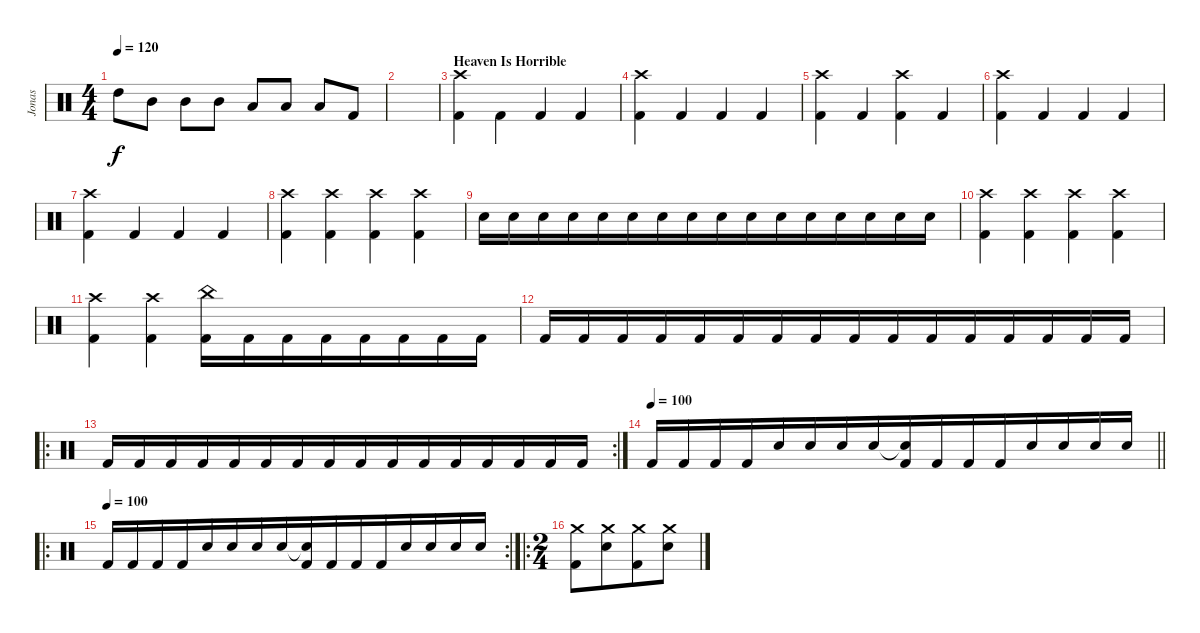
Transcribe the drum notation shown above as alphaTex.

\track ("Jonas" "Jonas") {instrument percussion}
\staff {score}
\articulation defaults
\ts (4 4)
\tempo 120
\clef neutral
\ks c "High Tom (hit)".8{dy f} "Mid Tom (hit)".8 "Mid Tom (hit)".8 "Mid Tom (hit)".8 "Low Tom (hit)".8 "Low Tom (hit)".8 "Low Tom (hit)".8 "Kick (hit) 2".8
|
|
\section ("" "Heaven Is Horrible")
("Crash high (hit)" "Kick (hit) 2").4{beam merge} "Kick (hit) 2".4 "Kick (hit) 2".4 "Kick (hit) 2".4 |
("Crash high (hit)" "Kick (hit) 2").4 "Kick (hit) 2".4 "Kick (hit) 2".4 "Kick (hit) 2".4 |
("Crash high (hit)" "Kick (hit) 2").4 "Kick (hit) 2".4 ("Crash high (hit)" "Kick (hit) 2").4 "Kick (hit) 2".4 |
("Crash high (hit)" "Kick (hit) 2").4 "Kick (hit) 2".4 "Kick (hit) 2".4 "Kick (hit) 2".4 |
("Crash high (hit)" "Kick (hit) 2").4 "Kick (hit) 2".4 "Kick (hit) 2".4 "Kick (hit) 2".4 |
("Crash high (hit)" "Kick (hit) 2").4 ("Crash high (hit)" "Kick (hit) 2").4 ("Crash high (hit)" "Kick (hit) 2").4 ("Crash high (hit)" "Kick (hit) 2").4 |
"Snare (hit) 2".16{beam merge} "Snare (hit) 2".16{beam merge} "Snare (hit) 2".16{beam merge} "Snare (hit) 2".16{beam merge} "Snare (hit) 2".16{beam merge} "Snare (hit) 2".16{beam merge} "Snare (hit) 2".16{beam merge} "Snare (hit) 2".16{beam merge} "Snare (hit) 2".16{beam merge} "Snare (hit) 2".16{beam merge} "Snare (hit) 2".16{beam merge} "Snare (hit) 2".16{beam merge} "Snare (hit) 2".16{beam merge} "Snare (hit) 2".16{beam merge} "Snare (hit) 2".16{beam merge} "Snare (hit) 2".16 |
("Kick (hit) 2" "Crash high (hit)").4 ("Kick (hit) 2" "Crash high (hit)").4 ("Kick (hit) 2" "Crash high (hit)").4 ("Kick (hit) 2" "Crash high (hit)").4 |
("Kick (hit) 2" "Crash high (hit)").4 ("Kick (hit) 2" "Crash high (hit)").4 ("Kick (hit) 2" "China (hit)").16{beam merge} "Kick (hit) 2".16{beam merge} "Kick (hit) 2".16{beam merge} "Kick (hit) 2".16{beam merge} "Kick (hit) 2".16{beam merge} "Kick (hit) 2".16{beam merge} "Kick (hit) 2".16{beam merge} "Kick (hit) 2".16 |
"Kick (hit) 2".16{beam merge} "Kick (hit) 2".16{beam merge} "Kick (hit) 2".16{beam merge} "Kick (hit) 2".16{beam merge} "Kick (hit) 2".16{beam merge} "Kick (hit) 2".16{beam merge} "Kick (hit) 2".16{beam merge} "Kick (hit) 2".16{beam merge} "Kick (hit) 2".16{beam merge} "Kick (hit) 2".16{beam merge} "Kick (hit) 2".16{beam merge} "Kick (hit) 2".16{beam merge} "Kick (hit) 2".16{beam merge} "Kick (hit) 2".16{beam merge} "Kick (hit) 2".16{beam merge} "Kick (hit) 2".16 |
\ro
\rc 2 "Kick (hit) 2".16{beam merge} "Kick (hit) 2".16{beam merge} "Kick (hit) 2".16{beam merge} "Kick (hit) 2".16{beam merge} "Kick (hit) 2".16{beam merge} "Kick (hit) 2".16{beam merge} "Kick (hit) 2".16{beam merge} "Kick (hit) 2".16{beam merge} "Kick (hit) 2".16{beam merge} "Kick (hit) 2".16{beam merge} "Kick (hit) 2".16{beam merge} "Kick (hit) 2".16{beam merge} "Kick (hit) 2".16{beam merge} "Kick (hit) 2".16{beam merge} "Kick (hit) 2".16{beam merge} "Kick (hit) 2".16
|
\tempo 100
\barLineRight lightlight "Kick (hit) 2".16{beam merge} "Kick (hit) 2".16{beam merge} "Kick (hit) 2".16{beam merge} "Kick (hit) 2".16{beam merge} "Snare (hit) 2".16{beam merge} "Snare (hit) 2".16{beam merge} "Snare (hit) 2".16{beam merge} "Snare (hit) 2".16{beam merge}
("Snare (hit)"{t} "Kick (hit) 2").16{beam merge} "Kick (hit) 2".16{beam merge} "Kick (hit) 2".16{beam merge} "Kick (hit) 2".16{beam merge} "Snare (hit) 2".16{beam merge} "Snare (hit) 2".16{beam merge} "Snare (hit) 2".16 "Snare (hit) 2".16 |
\ro
\rc 2
\tempo (100)
"Kick (hit) 2".16{beam merge} "Kick (hit) 2".16{beam merge} "Kick (hit) 2".16{beam merge} "Kick (hit) 2".16{beam merge} "Snare (hit) 2".16{beam merge} "Snare (hit) 2".16{beam merge} "Snare (hit) 2".16{beam merge} "Snare (hit) 2".16{beam merge} ("Snare (hit)"{t} "Kick (hit) 2").16{beam merge} "Kick (hit) 2".16{beam merge} "Kick (hit) 2".16{beam merge} "Kick (hit) 2".16{beam merge} "Snare (hit) 2".16{beam merge} "Snare (hit) 2".16{beam merge} "Snare (hit) 2".16 "Snare (hit) 2".16 |
\ro
\ts (2 4)
("Crash medium (hit)" "Kick (hit) 2").8{beam merge} ("Crash medium (hit)" "Snare (hit) 2").8{beam merge} ("Crash medium (hit)" "Kick (hit) 2").8{beam merge} ("Crash medium (hit)" "Snare (hit) 2").8
